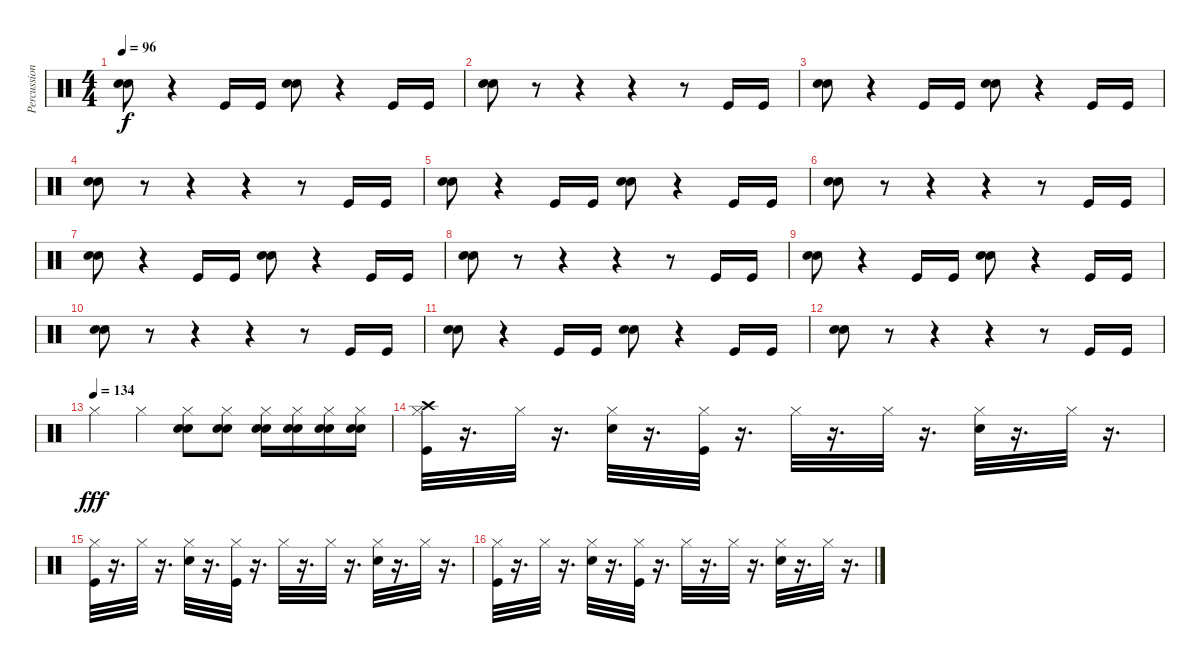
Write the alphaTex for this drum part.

\track ("Percussion (Rico)" "Percussion") {instrument percussion}
\staff {score}
\articulation defaults
\ts (4 4)
\tempo 96
\clef neutral
\ks c
("Electric Snare (hit)" "Electric Snare (hit)").8{dy f} r.4 "Kick (hit)".16 "Kick (hit)".16 ("Electric Snare (hit)" "Electric Snare (hit)").8 r.4 "Kick (hit)".16 "Kick (hit)".16 |
("Electric Snare (hit)" "Electric Snare (hit)").8 r.8 r.4 r.4 r.8 "Kick (hit)".16 "Kick (hit)".16 |
("Electric Snare (hit)" "Electric Snare (hit)").8 r.4 "Kick (hit)".16 "Kick (hit)".16 ("Electric Snare (hit)" "Electric Snare (hit)").8 r.4 "Kick (hit)".16 "Kick (hit)".16 |
("Electric Snare (hit)" "Electric Snare (hit)").8 r.8 r.4 r.4 r.8 "Kick (hit)".16 "Kick (hit)".16 |
("Electric Snare (hit)" "Electric Snare (hit)").8 r.4 "Kick (hit)".16 "Kick (hit)".16 ("Electric Snare (hit)" "Electric Snare (hit)").8 r.4 "Kick (hit)".16 "Kick (hit)".16 |
("Electric Snare (hit)" "Electric Snare (hit)").8 r.8 r.4 r.4 r.8 "Kick (hit)".16 "Kick (hit)".16 |
("Electric Snare (hit)" "Electric Snare (hit)").8 r.4 "Kick (hit)".16 "Kick (hit)".16 ("Electric Snare (hit)" "Electric Snare (hit)").8 r.4 "Kick (hit)".16 "Kick (hit)".16 |
("Electric Snare (hit)" "Electric Snare (hit)").8 r.8 r.4 r.4 r.8 "Kick (hit)".16 "Kick (hit)".16 |
("Electric Snare (hit)" "Electric Snare (hit)").8 r.4 "Kick (hit)".16 "Kick (hit)".16 ("Electric Snare (hit)" "Electric Snare (hit)").8 r.4 "Kick (hit)".16 "Kick (hit)".16 |
("Electric Snare (hit)" "Electric Snare (hit)").8 r.8 r.4 r.4 r.8 "Kick (hit)".16 "Kick (hit)".16 |
("Electric Snare (hit)" "Electric Snare (hit)").8 r.4 "Kick (hit)".16 "Kick (hit)".16 ("Electric Snare (hit)" "Electric Snare (hit)").8 r.4 "Kick (hit)".16 "Kick (hit)".16 |
("Electric Snare (hit)" "Electric Snare (hit)").8 r.8 r.4 r.4 r.8 "Kick (hit)".16 "Kick (hit)".16 |
\tempo (134)
"Hi-Hat (closed)".4{dy fff} "Hi-Hat (closed)".4 ("Hi-Hat (closed)" "Snare (hit) 2" "Snare (hit) 2").8 ("Hi-Hat (closed)" "Snare (hit) 2" "Snare (hit) 2").8 ("Hi-Hat (closed)" "Snare (hit) 2" "Snare (hit) 2").16 ("Hi-Hat (closed)" "Snare (hit) 2" "Snare (hit) 2").16 ("Hi-Hat (closed)" "Snare (hit) 2" "Snare (hit) 2").16 ("Hi-Hat (closed)" "Snare (hit) 2" "Snare (hit) 2").16 |
("Kick (hit)" "Hi-Hat (closed)" "Crash high (hit)").32 r.16{d} "Hi-Hat (closed)".32 r.16{d} ("Electric Snare (hit)" "Hi-Hat (closed)").32 r.16{d} ("Kick (hit)" "Hi-Hat (closed)").32 r.16{d} "Hi-Hat (closed)".32 r.16{d} "Hi-Hat (closed)".32 r.16{d} ("Electric Snare (hit)" "Hi-Hat (closed)").32 r.16{d} "Hi-Hat (closed)".32 r.16{d} |
("Kick (hit)" "Hi-Hat (closed)").32 r.16{d} "Hi-Hat (closed)".32 r.16{d} ("Electric Snare (hit)" "Hi-Hat (closed)").32 r.16{d} ("Kick (hit)" "Hi-Hat (closed)").32 r.16{d} "Hi-Hat (closed)".32 r.16{d} "Hi-Hat (closed)".32 r.16{d} ("Electric Snare (hit)" "Hi-Hat (closed)").32 r.16{d} "Hi-Hat (closed)".32 r.16{d} |
("Kick (hit)" "Hi-Hat (closed)").32 r.16{d} "Hi-Hat (closed)".32 r.16{d} ("Electric Snare (hit)" "Hi-Hat (closed)").32 r.16{d} ("Kick (hit)" "Hi-Hat (closed)").32 r.16{d} "Hi-Hat (closed)".32 r.16{d} "Hi-Hat (closed)".32 r.16{d} ("Electric Snare (hit)" "Hi-Hat (closed)").32 r.16{d} "Hi-Hat (closed)".32 r.16{d}
